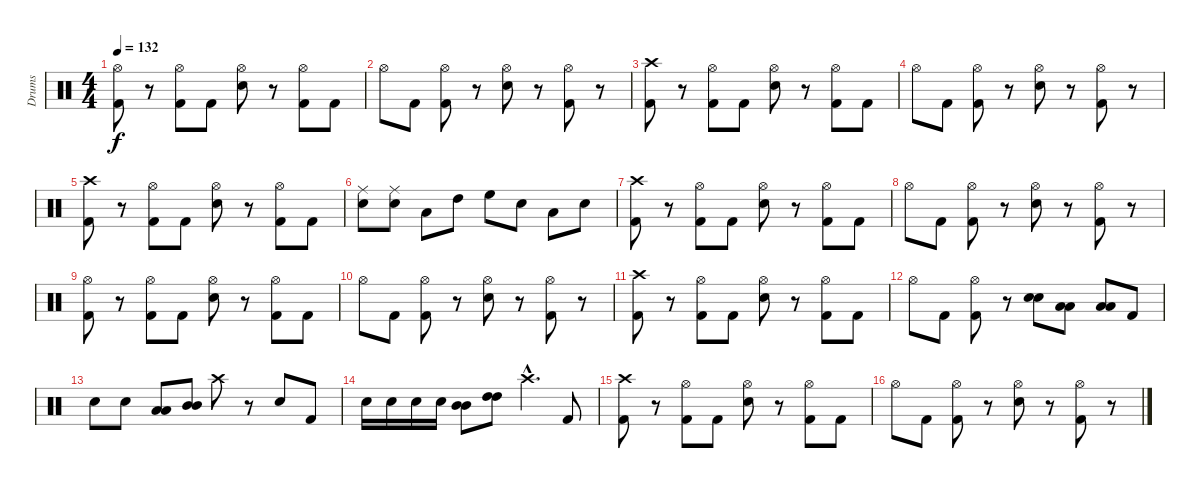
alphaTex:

\track ("Drums" "Drums") {instrument percussion}
\staff {score}
\articulation defaults
\ts (4 4)
\tempo 132
\clef neutral
\ks c
("Kick (hit) 2" "Hi-Hat (open)").8{dy f} r.8 ("Kick (hit) 2" "Hi-Hat (open)").8 "Kick (hit) 2".8 ("Snare (hit) 2" "Hi-Hat (open)").8 r.8 ("Kick (hit) 2" "Hi-Hat (open)").8 "Kick (hit) 2".8 |
"Hi-Hat (open)".8 "Kick (hit) 2".8 ("Kick (hit) 2" "Hi-Hat (open)").8 r.8 ("Snare (hit) 2" "Hi-Hat (open)").8 r.8 ("Kick (hit) 2" "Hi-Hat (open)").8 r.8 |
("Kick (hit) 2" "Crash high (hit)").8 r.8 ("Kick (hit) 2" "Hi-Hat (open)").8 "Kick (hit) 2".8 ("Snare (hit) 2" "Hi-Hat (open)").8 r.8 ("Kick (hit) 2" "Hi-Hat (open)").8 "Kick (hit) 2".8 |
"Hi-Hat (open)".8 "Kick (hit) 2".8 ("Kick (hit) 2" "Hi-Hat (open)").8 r.8 ("Snare (hit) 2" "Hi-Hat (open)").8 r.8 ("Kick (hit) 2" "Hi-Hat (open)").8 r.8 |
("Kick (hit) 2" "Crash high (hit)").8 r.8 ("Kick (hit) 2" "Hi-Hat (open)").8 "Kick (hit) 2".8 ("Snare (hit) 2" "Hi-Hat (open)").8 r.8 ("Kick (hit) 2" "Hi-Hat (open)").8 "Kick (hit) 2".8 |
("Snare (hit) 2" "Ride (middle)").8 ("Snare (hit) 2" "Ride (middle)").8 "Low Tom (hit)".8 "High Tom (hit)".8 "High Floor Tom (hit)".8 "Snare (hit) 2".8 "Low Tom (hit)".8 "Snare (hit) 2".8 |
("Kick (hit) 2" "Crash high (hit)").8 r.8 ("Kick (hit) 2" "Hi-Hat (open)").8 "Kick (hit) 2".8 ("Snare (hit) 2" "Hi-Hat (open)").8 r.8 ("Kick (hit) 2" "Hi-Hat (open)").8 "Kick (hit) 2".8 |
"Hi-Hat (open)".8 "Kick (hit) 2".8 ("Kick (hit) 2" "Hi-Hat (open)").8 r.8 ("Snare (hit) 2" "Hi-Hat (open)").8 r.8 ("Kick (hit) 2" "Hi-Hat (open)").8 r.8 |
("Kick (hit) 2" "Hi-Hat (open)").8 r.8 ("Kick (hit) 2" "Hi-Hat (open)").8 "Kick (hit) 2".8 ("Snare (hit) 2" "Hi-Hat (open)").8 r.8 ("Kick (hit) 2" "Hi-Hat (open)").8 "Kick (hit) 2".8 |
"Hi-Hat (open)".8 "Kick (hit) 2".8 ("Kick (hit) 2" "Hi-Hat (open)").8 r.8 ("Snare (hit) 2" "Hi-Hat (open)").8 r.8 ("Kick (hit) 2" "Hi-Hat (open)").8 r.8 |
("Kick (hit) 2" "Crash high (hit)").8 r.8 ("Kick (hit) 2" "Hi-Hat (open)").8 "Kick (hit) 2".8 ("Snare (hit) 2" "Hi-Hat (open)").8 r.8 ("Kick (hit) 2" "Hi-Hat (open)").8 "Kick (hit) 2".8 |
"Hi-Hat (open)".8 "Kick (hit) 2".8 ("Kick (hit) 2" "Hi-Hat (open)").8 r.8 ("Snare (hit) 2" "Snare (hit) 2").8 ("Low Tom (hit)" "Low Tom (hit)").8 ("Low Tom (hit)" "Low Tom (hit)").8 "Kick (hit) 2".8 |
"Snare (hit) 2".8 "Snare (hit) 2".8 ("Low Tom (hit)" "Low Tom (hit)").8 ("Mid Tom (hit)" "Mid Tom (hit)").8 "Crash high (hit)".8 r.8 "Snare (hit) 2".8 "Kick (hit) 2".8 |
"Snare (hit) 2".16 "Snare (hit) 2".16 "Snare (hit) 2".16 "Snare (hit) 2".16 ("Mid Tom (hit)" "Mid Tom (hit)").8 ("High Tom (hit)" "High Tom (hit)").8 "Crash high (hit)"{hac}.4{d} "Kick (hit) 2".8 |
("Kick (hit) 2" "Crash high (hit)").8 r.8 ("Kick (hit) 2" "Hi-Hat (open)").8 "Kick (hit) 2".8 ("Snare (hit) 2" "Hi-Hat (open)").8 r.8 ("Kick (hit) 2" "Hi-Hat (open)").8 "Kick (hit) 2".8 |
"Hi-Hat (open)".8 "Kick (hit) 2".8 ("Kick (hit) 2" "Hi-Hat (open)").8 r.8 ("Snare (hit) 2" "Hi-Hat (open)").8 r.8 ("Kick (hit) 2" "Hi-Hat (open)").8 r.8
